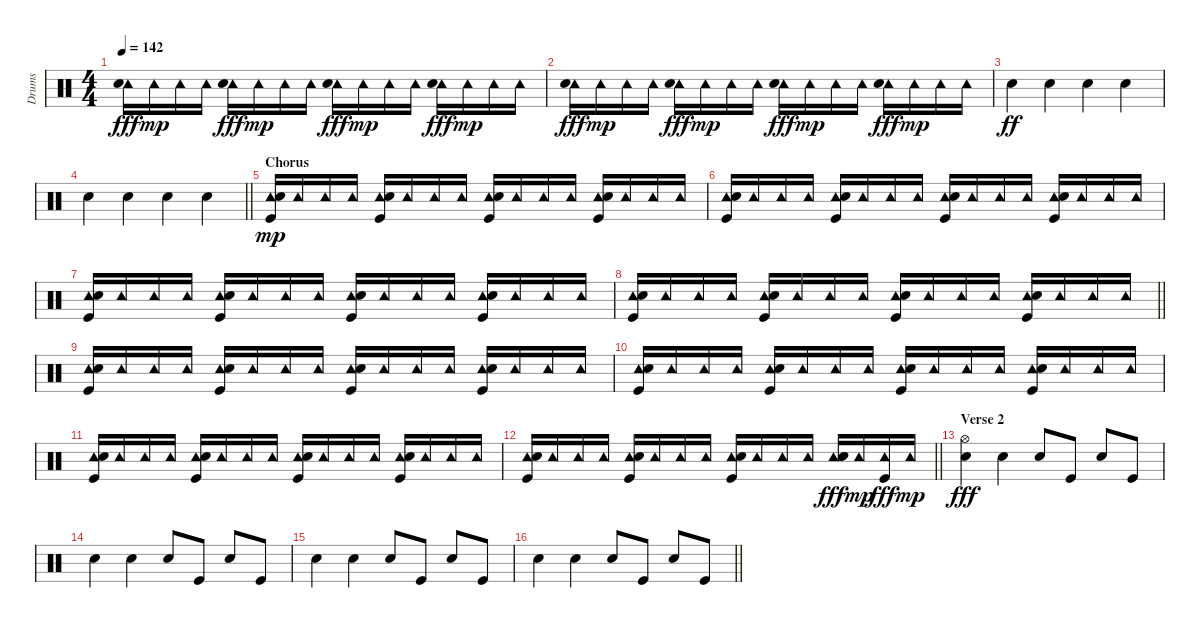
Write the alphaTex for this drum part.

\track ("Drums" "Drums") {instrument percussion}
\staff {score}
\articulation defaults
\ts (4 4)
\tempo 142
\clef neutral
\ks c
("Tambourine (hit)" "Hand Clap (hit)").16{dy fff} "Tambourine (hit)".16{dy mp} "Tambourine (hit)".16 "Tambourine (hit)".16 ("Tambourine (hit)" "Hand Clap (hit)").16{dy fff} "Tambourine (hit)".16{dy mp} "Tambourine (hit)".16 "Tambourine (hit)".16 ("Tambourine (hit)" "Hand Clap (hit)").16{dy fff} "Tambourine (hit)".16{dy mp} "Tambourine (hit)".16 "Tambourine (hit)".16 ("Tambourine (hit)" "Hand Clap (hit)").16{dy fff} "Tambourine (hit)".16{dy mp} "Tambourine (hit)".16 "Tambourine (hit)".16 |
("Tambourine (hit)" "Hand Clap (hit)").16{dy fff} "Tambourine (hit)".16{dy mp} "Tambourine (hit)".16 "Tambourine (hit)".16 ("Tambourine (hit)" "Hand Clap (hit)").16{dy fff} "Tambourine (hit)".16{dy mp} "Tambourine (hit)".16 "Tambourine (hit)".16 ("Tambourine (hit)" "Hand Clap (hit)").16{dy fff} "Tambourine (hit)".16{dy mp} "Tambourine (hit)".16 "Tambourine (hit)".16 ("Tambourine (hit)" "Hand Clap (hit)").16{dy fff} "Tambourine (hit)".16{dy mp} "Tambourine (hit)".16 "Tambourine (hit)".16 |
"Hand Clap (hit)".4{dy ff} "Hand Clap (hit)".4 "Hand Clap (hit)".4 "Hand Clap (hit)".4 |
\barLineRight lightlight "Hand Clap (hit)".4 "Hand Clap (hit)".4 "Hand Clap (hit)".4 "Hand Clap (hit)".4
|
\section ("" "Chorus")
("Tambourine (hit)" "Hand Clap (hit)" "Kick (hit)").16{dy mp} "Tambourine (hit)".16 "Tambourine (hit)".16 "Tambourine (hit)".16 ("Tambourine (hit)" "Hand Clap (hit)" "Kick (hit)").16 "Tambourine (hit)".16 "Tambourine (hit)".16 "Tambourine (hit)".16 ("Tambourine (hit)" "Hand Clap (hit)" "Kick (hit)").16 "Tambourine (hit)".16 "Tambourine (hit)".16 "Tambourine (hit)".16 ("Tambourine (hit)" "Hand Clap (hit)" "Kick (hit)").16 "Tambourine (hit)".16 "Tambourine (hit)".16 "Tambourine (hit)".16 |
("Tambourine (hit)" "Hand Clap (hit)" "Kick (hit)").16 "Tambourine (hit)".16 "Tambourine (hit)".16 "Tambourine (hit)".16 ("Tambourine (hit)" "Hand Clap (hit)" "Kick (hit)").16 "Tambourine (hit)".16 "Tambourine (hit)".16 "Tambourine (hit)".16 ("Tambourine (hit)" "Hand Clap (hit)" "Kick (hit)").16 "Tambourine (hit)".16 "Tambourine (hit)".16 "Tambourine (hit)".16 ("Tambourine (hit)" "Hand Clap (hit)" "Kick (hit)").16 "Tambourine (hit)".16 "Tambourine (hit)".16 "Tambourine (hit)".16 |
("Tambourine (hit)" "Hand Clap (hit)" "Kick (hit)").16 "Tambourine (hit)".16 "Tambourine (hit)".16 "Tambourine (hit)".16 ("Tambourine (hit)" "Hand Clap (hit)" "Kick (hit)").16 "Tambourine (hit)".16 "Tambourine (hit)".16 "Tambourine (hit)".16 ("Tambourine (hit)" "Hand Clap (hit)" "Kick (hit)").16 "Tambourine (hit)".16 "Tambourine (hit)".16 "Tambourine (hit)".16 ("Tambourine (hit)" "Hand Clap (hit)" "Kick (hit)").16 "Tambourine (hit)".16 "Tambourine (hit)".16 "Tambourine (hit)".16 |
\barLineRight lightlight
("Tambourine (hit)" "Hand Clap (hit)" "Kick (hit)").16 "Tambourine (hit)".16 "Tambourine (hit)".16 "Tambourine (hit)".16 ("Tambourine (hit)" "Hand Clap (hit)" "Kick (hit)").16 "Tambourine (hit)".16 "Tambourine (hit)".16 "Tambourine (hit)".16 ("Tambourine (hit)" "Hand Clap (hit)" "Kick (hit)").16 "Tambourine (hit)".16 "Tambourine (hit)".16 "Tambourine (hit)".16 ("Tambourine (hit)" "Hand Clap (hit)" "Kick (hit)").16 "Tambourine (hit)".16 "Tambourine (hit)".16 "Tambourine (hit)".16 |
("Tambourine (hit)" "Hand Clap (hit)" "Kick (hit)").16 "Tambourine (hit)".16 "Tambourine (hit)".16 "Tambourine (hit)".16 ("Tambourine (hit)" "Hand Clap (hit)" "Kick (hit)").16 "Tambourine (hit)".16 "Tambourine (hit)".16 "Tambourine (hit)".16 ("Tambourine (hit)" "Hand Clap (hit)" "Kick (hit)").16 "Tambourine (hit)".16 "Tambourine (hit)".16 "Tambourine (hit)".16 ("Tambourine (hit)" "Hand Clap (hit)" "Kick (hit)").16 "Tambourine (hit)".16 "Tambourine (hit)".16 "Tambourine (hit)".16 |
("Tambourine (hit)" "Hand Clap (hit)" "Kick (hit)").16 "Tambourine (hit)".16 "Tambourine (hit)".16 "Tambourine (hit)".16 ("Tambourine (hit)" "Hand Clap (hit)" "Kick (hit)").16 "Tambourine (hit)".16 "Tambourine (hit)".16 "Tambourine (hit)".16 ("Tambourine (hit)" "Hand Clap (hit)" "Kick (hit)").16 "Tambourine (hit)".16 "Tambourine (hit)".16 "Tambourine (hit)".16 ("Tambourine (hit)" "Hand Clap (hit)" "Kick (hit)").16 "Tambourine (hit)".16 "Tambourine (hit)".16 "Tambourine (hit)".16 |
("Tambourine (hit)" "Hand Clap (hit)" "Kick (hit)").16 "Tambourine (hit)".16 "Tambourine (hit)".16 "Tambourine (hit)".16 ("Tambourine (hit)" "Hand Clap (hit)" "Kick (hit)").16 "Tambourine (hit)".16 "Tambourine (hit)".16 "Tambourine (hit)".16 ("Tambourine (hit)" "Hand Clap (hit)" "Kick (hit)").16 "Tambourine (hit)".16 "Tambourine (hit)".16 "Tambourine (hit)".16 ("Tambourine (hit)" "Hand Clap (hit)" "Kick (hit)").16 "Tambourine (hit)".16 "Tambourine (hit)".16 "Tambourine (hit)".16 |
\barLineRight lightlight
("Tambourine (hit)" "Hand Clap (hit)" "Kick (hit)").16 "Tambourine (hit)".16 "Tambourine (hit)".16 "Tambourine (hit)".16 ("Tambourine (hit)" "Hand Clap (hit)" "Kick (hit)").16 "Tambourine (hit)".16 "Tambourine (hit)".16 "Tambourine (hit)".16 ("Tambourine (hit)" "Hand Clap (hit)" "Kick (hit)").16 "Tambourine (hit)".16 "Tambourine (hit)".16 "Tambourine (hit)".16 ("Tambourine (hit)" "Hand Clap (hit)" "Electric Snare (hit)").16{dy fff} "Tambourine (hit)".16{dy mp} ("Tambourine (hit)" "Kick (hit)").16{dy fff} "Tambourine (hit)".16{dy mp} |
\section ("" "Verse 2")
("Hi-Hat (open)" "Electric Snare (hit)").4{dy fff} "Electric Snare (hit)".4 "Electric Snare (hit)".8 "Kick (hit)".8 "Electric Snare (hit)".8 "Kick (hit)".8 |
"Electric Snare (hit)".4 "Electric Snare (hit)".4 "Electric Snare (hit)".8 "Kick (hit)".8 "Electric Snare (hit)".8 "Kick (hit)".8 |
"Electric Snare (hit)".4 "Electric Snare (hit)".4 "Electric Snare (hit)".8 "Kick (hit)".8 "Electric Snare (hit)".8 "Kick (hit)".8 |
\barLineRight lightlight "Electric Snare (hit)".4 "Electric Snare (hit)".4 "Electric Snare (hit)".8 "Kick (hit)".8 "Electric Snare (hit)".8 "Kick (hit)".8
